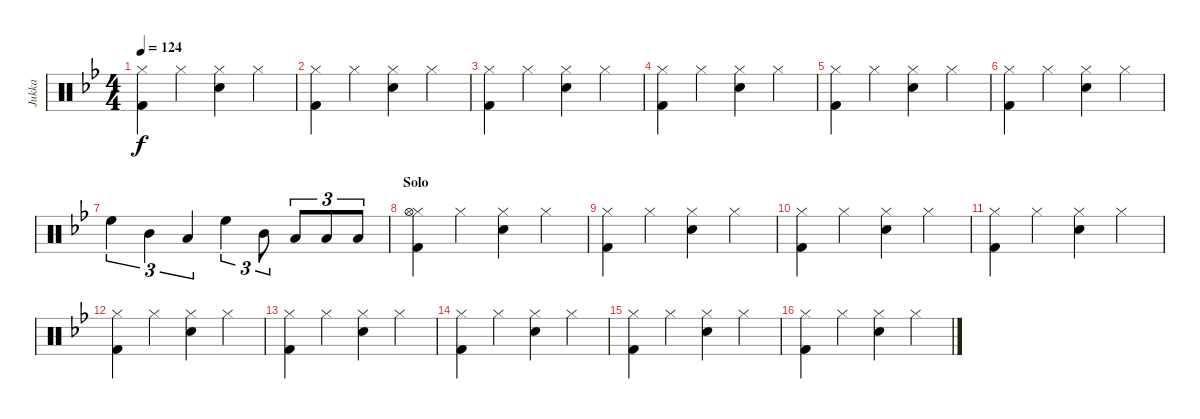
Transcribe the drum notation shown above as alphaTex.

\track ("Jukka" "Jukka") {instrument percussion}
\staff {score}
\articulation defaults
\ts (4 4)
\tempo 124
\clef neutral
\ks bb
("Hi-Hat (closed)" "Kick (hit) 2").4{dy f} "Hi-Hat (closed)".4 ("Hi-Hat (closed)" "Snare (hit) 2").4 "Hi-Hat (closed)".4 |
("Hi-Hat (closed)" "Kick (hit) 2").4 "Hi-Hat (closed)".4 ("Hi-Hat (closed)" "Snare (hit) 2").4 "Hi-Hat (closed)".4 |
("Hi-Hat (closed)" "Kick (hit) 2").4 "Hi-Hat (closed)".4 ("Hi-Hat (closed)" "Snare (hit) 2").4 "Hi-Hat (closed)".4 |
("Hi-Hat (closed)" "Kick (hit) 2").4 "Hi-Hat (closed)".4 ("Hi-Hat (closed)" "Snare (hit) 2").4 "Hi-Hat (closed)".4 |
("Hi-Hat (closed)" "Kick (hit) 2").4 "Hi-Hat (closed)".4 ("Hi-Hat (closed)" "Snare (hit) 2").4 "Hi-Hat (closed)".4 |
("Hi-Hat (closed)" "Kick (hit) 2").4 "Hi-Hat (closed)".4 ("Hi-Hat (closed)" "Snare (hit) 2").4 "Hi-Hat (closed)".4 |
"High Floor Tom (hit)".4{tu (3 2)} "Mid Tom (hit)".4{tu (3 2)} "Low Tom (hit)".4{tu (3 2)} "High Floor Tom (hit)".4{tu (3 2)} "Mid Tom (hit)".8{tu (3 2)} "Low Tom (hit)".8{tu (3 2)} "Low Tom (hit)".8{tu (3 2)} "Low Floor Tom (hit)".8{tu (3 2)} |
\section ("" "Solo")
("Hi-Hat (closed)" "Hi-Hat (open)" "Kick (hit) 2").4 "Hi-Hat (closed)".4 ("Hi-Hat (closed)" "Snare (hit) 2").4 "Hi-Hat (closed)".4 |
("Hi-Hat (closed)" "Kick (hit) 2").4 "Hi-Hat (closed)".4 ("Hi-Hat (closed)" "Snare (hit) 2").4 "Hi-Hat (closed)".4 |
("Hi-Hat (closed)" "Kick (hit) 2").4 "Hi-Hat (closed)".4 ("Hi-Hat (closed)" "Snare (hit) 2").4 "Hi-Hat (closed)".4 |
("Hi-Hat (closed)" "Kick (hit) 2").4 "Hi-Hat (closed)".4 ("Hi-Hat (closed)" "Snare (hit) 2").4 "Hi-Hat (closed)".4 |
("Hi-Hat (closed)" "Kick (hit) 2").4 "Hi-Hat (closed)".4 ("Hi-Hat (closed)" "Snare (hit) 2").4 "Hi-Hat (closed)".4 |
("Hi-Hat (closed)" "Kick (hit) 2").4 "Hi-Hat (closed)".4 ("Hi-Hat (closed)" "Snare (hit) 2").4 "Hi-Hat (closed)".4 |
("Hi-Hat (closed)" "Kick (hit) 2").4 "Hi-Hat (closed)".4 ("Hi-Hat (closed)" "Snare (hit) 2").4 "Hi-Hat (closed)".4 |
("Hi-Hat (closed)" "Kick (hit) 2").4 "Hi-Hat (closed)".4 ("Hi-Hat (closed)" "Snare (hit) 2").4 "Hi-Hat (closed)".4 |
("Hi-Hat (closed)" "Kick (hit) 2").4 "Hi-Hat (closed)".4 ("Hi-Hat (closed)" "Snare (hit) 2").4 "Hi-Hat (closed)".4
